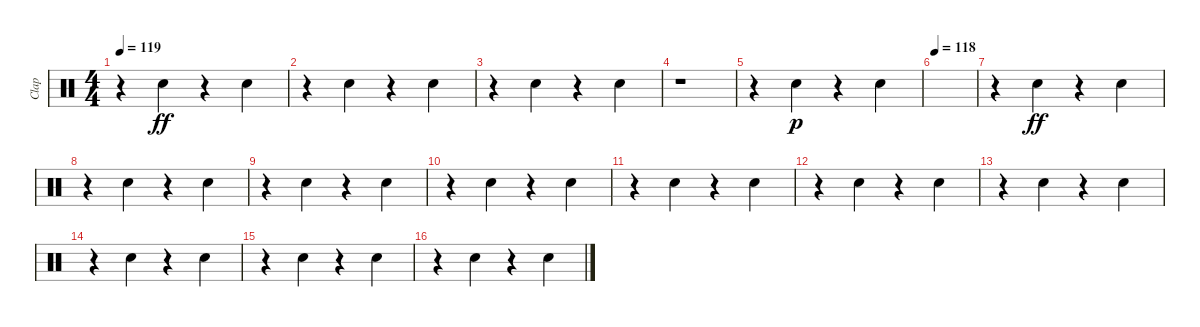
\track ("Clap" "Clap") {instrument percussion}
\staff {score}
\articulation defaults
\ts (4 4)
\tempo 119
\clef neutral
\ks c
r.4{dy ff} "Hand Clap (hit)".4 r.4 "Hand Clap (hit)".4 |
r.4 "Hand Clap (hit)".4 r.4 "Hand Clap (hit)".4 |
r.4 "Hand Clap (hit)".4 r.4 "Hand Clap (hit)".4 |
r.1 |
r.4 "Hand Clap (hit)".4{dy p} r.4 "Hand Clap (hit)".4 |
\tempo 118
|
r.4 "Hand Clap (hit)".4{dy ff} r.4 "Hand Clap (hit)".4 |
r.4 "Hand Clap (hit)".4 r.4 "Hand Clap (hit)".4 |
r.4 "Hand Clap (hit)".4 r.4 "Hand Clap (hit)".4 |
r.4 "Hand Clap (hit)".4 r.4 "Hand Clap (hit)".4 |
r.4 "Hand Clap (hit)".4 r.4 "Hand Clap (hit)".4 |
r.4 "Hand Clap (hit)".4 r.4 "Hand Clap (hit)".4 |
r.4 "Hand Clap (hit)".4 r.4 "Hand Clap (hit)".4 |
r.4 "Hand Clap (hit)".4 r.4 "Hand Clap (hit)".4 |
r.4 "Hand Clap (hit)".4 r.4 "Hand Clap (hit)".4 |
r.4 "Hand Clap (hit)".4 r.4 "Hand Clap (hit)".4
